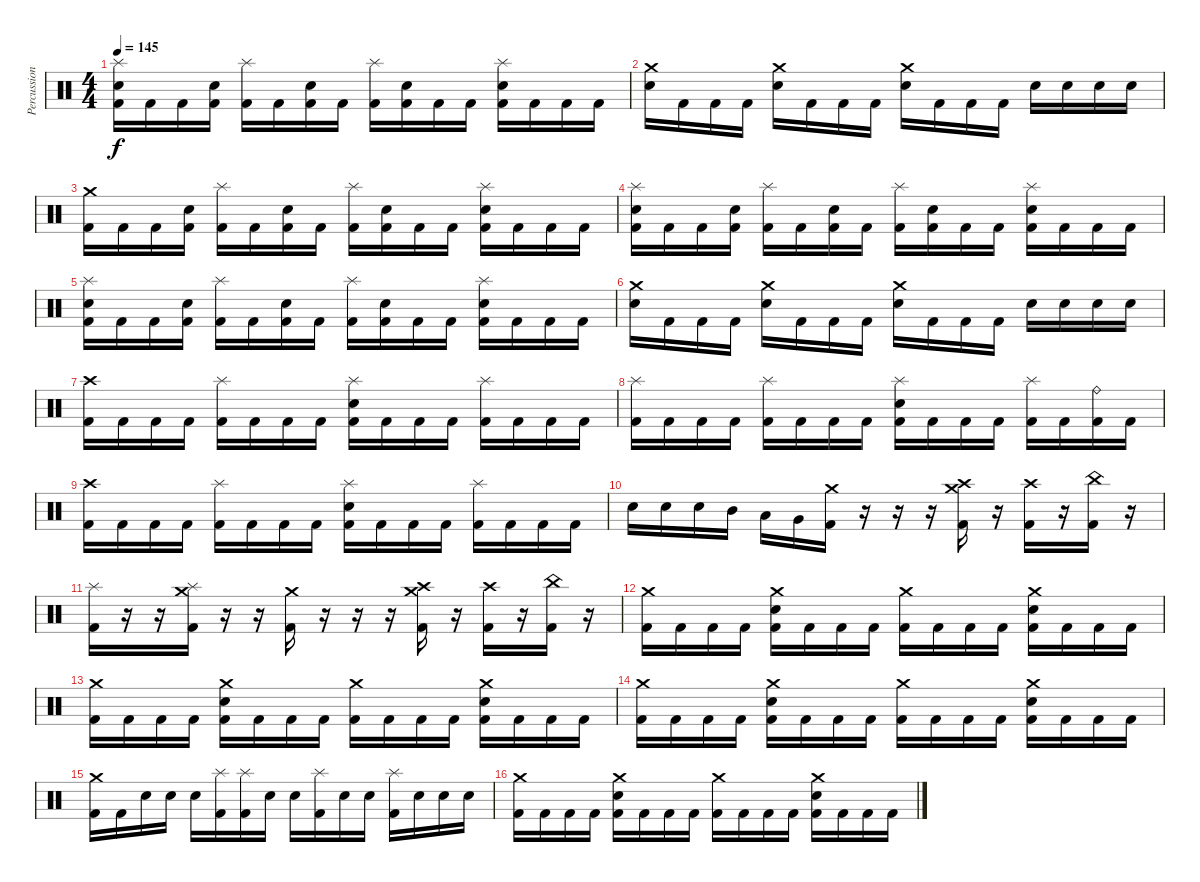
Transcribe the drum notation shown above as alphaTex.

\track ("Percussion" "Percussion") {instrument percussion}
\staff {score}
\articulation defaults
\ts (4 4)
\tempo 145
\clef neutral
\ks c
("Splash (hit)" "Electric Snare (hit)" "Kick (hit) 2").16{dy f} "Kick (hit) 2".16 "Kick (hit) 2".16 ("Electric Snare (hit)" "Kick (hit) 2").16 ("Splash (hit)" "Kick (hit) 2").16 "Kick (hit) 2".16 ("Electric Snare (hit)" "Kick (hit) 2").16 "Kick (hit) 2".16 ("Splash (hit)" "Kick (hit) 2").16 ("Electric Snare (hit)" "Kick (hit) 2").16 "Kick (hit) 2".16 "Kick (hit) 2".16 ("Splash (hit)" "Electric Snare (hit)" "Kick (hit) 2").16 "Kick (hit) 2".16 "Kick (hit) 2".16 "Kick (hit) 2".16 |
("Crash medium (hit)" "Electric Snare (hit)").16 "Kick (hit) 2".16 "Kick (hit) 2".16 "Kick (hit) 2".16 ("Crash medium (hit)" "Electric Snare (hit)").16 "Kick (hit) 2".16 "Kick (hit) 2".16 "Kick (hit) 2".16 ("Crash medium (hit)" "Electric Snare (hit)").16 "Kick (hit) 2".16 "Kick (hit) 2".16 "Kick (hit) 2".16 "Electric Snare (hit)".16 "Electric Snare (hit)".16 "Electric Snare (hit)".16 "Electric Snare (hit)".16 |
("Crash medium (hit)" "Kick (hit) 2").16 "Kick (hit) 2".16 "Kick (hit) 2".16 ("Electric Snare (hit)" "Kick (hit) 2").16 ("Splash (hit)" "Kick (hit) 2").16 "Kick (hit) 2".16 ("Electric Snare (hit)" "Kick (hit) 2").16 "Kick (hit) 2".16 ("Splash (hit)" "Kick (hit) 2").16 ("Electric Snare (hit)" "Kick (hit) 2").16 "Kick (hit) 2".16 "Kick (hit) 2".16 ("Splash (hit)" "Electric Snare (hit)" "Kick (hit) 2").16 "Kick (hit) 2".16 "Kick (hit) 2".16 "Kick (hit) 2".16 |
("Splash (hit)" "Electric Snare (hit)" "Kick (hit) 2").16 "Kick (hit) 2".16 "Kick (hit) 2".16 ("Electric Snare (hit)" "Kick (hit) 2").16 ("Splash (hit)" "Kick (hit) 2").16 "Kick (hit) 2".16 ("Electric Snare (hit)" "Kick (hit) 2").16 "Kick (hit) 2".16 ("Splash (hit)" "Kick (hit) 2").16 ("Electric Snare (hit)" "Kick (hit) 2").16 "Kick (hit) 2".16 "Kick (hit) 2".16 ("Splash (hit)" "Electric Snare (hit)" "Kick (hit) 2").16 "Kick (hit) 2".16 "Kick (hit) 2".16 "Kick (hit) 2".16 |
("Splash (hit)" "Electric Snare (hit)" "Kick (hit) 2").16 "Kick (hit) 2".16 "Kick (hit) 2".16 ("Electric Snare (hit)" "Kick (hit) 2").16 ("Splash (hit)" "Kick (hit) 2").16 "Kick (hit) 2".16 ("Electric Snare (hit)" "Kick (hit) 2").16 "Kick (hit) 2".16 ("Splash (hit)" "Kick (hit) 2").16 ("Electric Snare (hit)" "Kick (hit) 2").16 "Kick (hit) 2".16 "Kick (hit) 2".16 ("Splash (hit)" "Electric Snare (hit)" "Kick (hit) 2").16 "Kick (hit) 2".16 "Kick (hit) 2".16 "Kick (hit) 2".16 |
("Crash medium (hit)" "Electric Snare (hit)").16 "Kick (hit) 2".16 "Kick (hit) 2".16 "Kick (hit) 2".16 ("Crash medium (hit)" "Electric Snare (hit)").16 "Kick (hit) 2".16 "Kick (hit) 2".16 "Kick (hit) 2".16 ("Crash medium (hit)" "Electric Snare (hit)").16 "Kick (hit) 2".16 "Kick (hit) 2".16 "Kick (hit) 2".16 "Electric Snare (hit)".16 "Electric Snare (hit)".16 "Electric Snare (hit)".16 "Electric Snare (hit)".16 |
("Crash high (hit)" "Kick (hit) 2").16 "Kick (hit) 2".16 "Kick (hit) 2".16 "Kick (hit) 2".16 ("Splash (hit)" "Kick (hit) 2").16 "Kick (hit) 2".16 "Kick (hit) 2".16 "Kick (hit) 2".16 ("Splash (hit)" "Electric Snare (hit)" "Kick (hit) 2").16 "Kick (hit) 2".16 "Kick (hit) 2".16 "Kick (hit) 2".16 ("Splash (hit)" "Kick (hit) 2").16 "Kick (hit) 2".16 "Kick (hit) 2".16 "Kick (hit) 2".16 |
("Splash (hit)" "Kick (hit) 2").16 "Kick (hit) 2".16 "Kick (hit) 2".16 "Kick (hit) 2".16 ("Splash (hit)" "Kick (hit) 2").16 "Kick (hit) 2".16 "Kick (hit) 2".16 "Kick (hit) 2".16 ("Splash (hit)" "Electric Snare (hit)" "Kick (hit) 2").16 "Kick (hit) 2".16 "Kick (hit) 2".16 "Kick (hit) 2".16 ("Splash (hit)" "Kick (hit) 2").16 "Kick (hit) 2".16 ("Ride (bell)" "Kick (hit) 2").16 "Kick (hit) 2".16 |
("Crash high (hit)" "Kick (hit) 2").16 "Kick (hit) 2".16 "Kick (hit) 2".16 "Kick (hit) 2".16 ("Splash (hit)" "Kick (hit) 2").16 "Kick (hit) 2".16 "Kick (hit) 2".16 "Kick (hit) 2".16 ("Splash (hit)" "Electric Snare (hit)" "Kick (hit) 2").16 "Kick (hit) 2".16 "Kick (hit) 2".16 "Kick (hit) 2".16 ("Splash (hit)" "Kick (hit) 2").16 "Kick (hit) 2".16 "Kick (hit) 2".16 "Kick (hit) 2".16 |
"Electric Snare (hit)".16 "Electric Snare (hit)".16 "Electric Snare (hit)".16 "Mid Tom (hit)".16 "Low Tom (hit)".16 "Very Low Tom (hit)".16 ("Crash medium (hit)" "Kick (hit) 2").16 r.16 r.16 r.16 ("Crash high (hit)" "Crash medium (hit)" "Kick (hit) 2").16 r.16 ("Crash high (hit)" "Kick (hit) 2").16 r.16 ("China (hit)" "Kick (hit) 2").16 r.16 |
("Splash (hit)" "Kick (hit) 2").16 r.16 r.16 ("Crash medium (hit)" "Splash (hit)" "Kick (hit) 2").16 r.16 r.16 ("Crash medium (hit)" "Kick (hit) 2").16 r.16 r.16 r.16 ("Crash high (hit)" "Crash medium (hit)" "Kick (hit) 2").16 r.16 ("Crash high (hit)" "Kick (hit) 2").16 r.16 ("China (hit)" "Kick (hit) 2").16 r.16 |
("Crash medium (hit)" "Kick (hit) 2").16 "Kick (hit) 2".16 "Kick (hit) 2".16 "Kick (hit) 2".16 ("Crash medium (hit)" "Electric Snare (hit)" "Kick (hit) 2").16 "Kick (hit) 2".16 "Kick (hit) 2".16 "Kick (hit) 2".16 ("Crash medium (hit)" "Kick (hit) 2").16 "Kick (hit) 2".16 "Kick (hit) 2".16 "Kick (hit) 2".16 ("Crash medium (hit)" "Electric Snare (hit)" "Kick (hit) 2").16 "Kick (hit) 2".16 "Kick (hit) 2".16 "Kick (hit) 2".16 |
("Crash medium (hit)" "Kick (hit) 2").16 "Kick (hit) 2".16 "Kick (hit) 2".16 "Kick (hit) 2".16 ("Crash medium (hit)" "Electric Snare (hit)" "Kick (hit) 2").16 "Kick (hit) 2".16 "Kick (hit) 2".16 "Kick (hit) 2".16 ("Crash medium (hit)" "Kick (hit) 2").16 "Kick (hit) 2".16 "Kick (hit) 2".16 "Kick (hit) 2".16 ("Crash medium (hit)" "Electric Snare (hit)" "Kick (hit) 2").16 "Kick (hit) 2".16 "Kick (hit) 2".16 "Kick (hit) 2".16 |
("Crash medium (hit)" "Kick (hit) 2").16 "Kick (hit) 2".16 "Kick (hit) 2".16 "Kick (hit) 2".16 ("Crash medium (hit)" "Electric Snare (hit)" "Kick (hit) 2").16 "Kick (hit) 2".16 "Kick (hit) 2".16 "Kick (hit) 2".16 ("Crash medium (hit)" "Kick (hit) 2").16 "Kick (hit) 2".16 "Kick (hit) 2".16 "Kick (hit) 2".16 ("Crash medium (hit)" "Electric Snare (hit)" "Kick (hit) 2").16 "Kick (hit) 2".16 "Kick (hit) 2".16 "Kick (hit) 2".16 |
("Crash medium (hit)" "Kick (hit) 2").16 "Kick (hit) 2".16 "Electric Snare (hit)".16 "Electric Snare (hit)".16 "Electric Snare (hit)".16 ("Splash (hit)" "Kick (hit) 2").16 ("Splash (hit)" "Kick (hit) 2").16 "Electric Snare (hit)".16 "Electric Snare (hit)".16 ("Splash (hit)" "Kick (hit) 2").16 "Electric Snare (hit)".16 "Electric Snare (hit)".16 ("Splash (hit)" "Kick (hit) 2").16 "Electric Snare (hit)".16 "Electric Snare (hit)".16 "Electric Snare (hit)".16 |
("Crash medium (hit)" "Kick (hit) 2").16 "Kick (hit) 2".16 "Kick (hit) 2".16 "Kick (hit) 2".16 ("Crash medium (hit)" "Electric Snare (hit)" "Kick (hit) 2").16 "Kick (hit) 2".16 "Kick (hit) 2".16 "Kick (hit) 2".16 ("Crash medium (hit)" "Kick (hit) 2").16 "Kick (hit) 2".16 "Kick (hit) 2".16 "Kick (hit) 2".16 ("Crash medium (hit)" "Electric Snare (hit)" "Kick (hit) 2").16 "Kick (hit) 2".16 "Kick (hit) 2".16 "Kick (hit) 2".16
